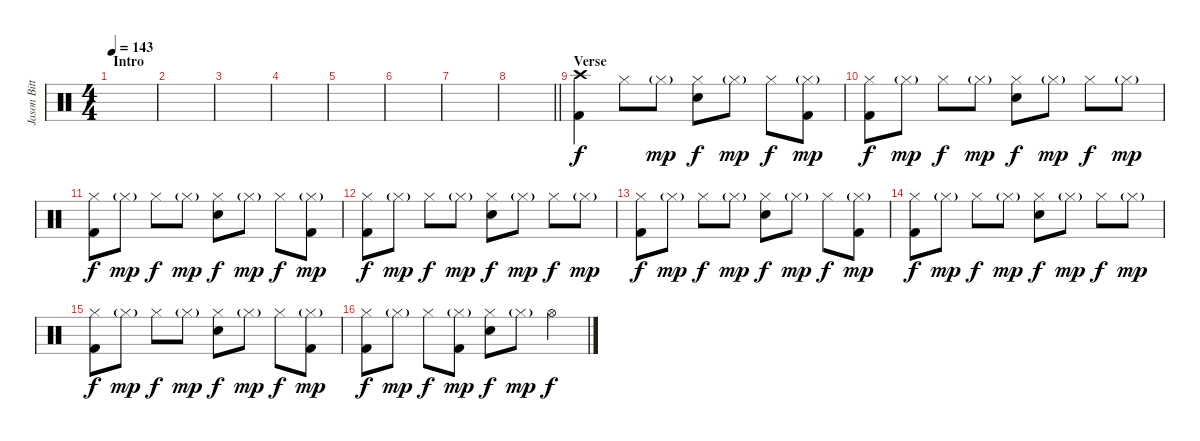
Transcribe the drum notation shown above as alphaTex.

\track ("Jason Bittner" "Jason Bitt") {instrument percussion}
\staff {score}
\articulation defaults
\ts (4 4)
\section ("" "Intro")
\tempo 143
\clef neutral
\ks c
|
|
|
|
|
|
|
\barLineRight lightlight
|
\section ("" "Verse")
("Crash high (hit)" "Kick (hit) 2").4 "Hi-Hat (closed)".8 "Hi-Hat (closed)"{g}.8{dy mp} ("Hi-Hat (closed)" "Electric Snare (hit)").8{dy f} "Hi-Hat (closed)"{g}.8{dy mp} "Hi-Hat (closed)".8{dy f} ("Hi-Hat (closed)"{g} "Kick (hit) 2").8{dy mp} |
("Hi-Hat (closed)" "Kick (hit) 2").8{dy f} "Hi-Hat (closed)"{g}.8{dy mp} "Hi-Hat (closed)".8{dy f} "Hi-Hat (closed)"{g}.8{dy mp} ("Hi-Hat (closed)" "Electric Snare (hit)").8{dy f} "Hi-Hat (closed)"{g}.8{dy mp} "Hi-Hat (closed)".8{dy f} "Hi-Hat (closed)"{g}.8{dy mp} |
("Hi-Hat (closed)" "Kick (hit) 2").8{dy f} "Hi-Hat (closed)"{g}.8{dy mp} "Hi-Hat (closed)".8{dy f} "Hi-Hat (closed)"{g}.8{dy mp} ("Hi-Hat (closed)" "Electric Snare (hit)").8{dy f} "Hi-Hat (closed)"{g}.8{dy mp} "Hi-Hat (closed)".8{dy f} ("Hi-Hat (closed)"{g} "Kick (hit) 2").8{dy mp} |
("Hi-Hat (closed)" "Kick (hit) 2").8{dy f} "Hi-Hat (closed)"{g}.8{dy mp} "Hi-Hat (closed)".8{dy f} "Hi-Hat (closed)"{g}.8{dy mp} ("Hi-Hat (closed)" "Electric Snare (hit)").8{dy f} "Hi-Hat (closed)"{g}.8{dy mp} "Hi-Hat (closed)".8{dy f} "Hi-Hat (closed)"{g}.8{dy mp} |
("Hi-Hat (closed)" "Kick (hit) 2").8{dy f} "Hi-Hat (closed)"{g}.8{dy mp} "Hi-Hat (closed)".8{dy f} "Hi-Hat (closed)"{g}.8{dy mp} ("Hi-Hat (closed)" "Electric Snare (hit)").8{dy f} "Hi-Hat (closed)"{g}.8{dy mp} "Hi-Hat (closed)".8{dy f} ("Hi-Hat (closed)"{g} "Kick (hit) 2").8{dy mp} |
("Hi-Hat (closed)" "Kick (hit) 2").8{dy f} "Hi-Hat (closed)"{g}.8{dy mp} "Hi-Hat (closed)".8{dy f} "Hi-Hat (closed)"{g}.8{dy mp} ("Hi-Hat (closed)" "Electric Snare (hit)").8{dy f} "Hi-Hat (closed)"{g}.8{dy mp} "Hi-Hat (closed)".8{dy f} "Hi-Hat (closed)"{g}.8{dy mp} |
("Hi-Hat (closed)" "Kick (hit) 2").8{dy f} "Hi-Hat (closed)"{g}.8{dy mp} "Hi-Hat (closed)".8{dy f} "Hi-Hat (closed)"{g}.8{dy mp} ("Hi-Hat (closed)" "Electric Snare (hit)").8{dy f} "Hi-Hat (closed)"{g}.8{dy mp} "Hi-Hat (closed)".8{dy f} ("Hi-Hat (closed)"{g} "Kick (hit) 2").8{dy mp} |
("Hi-Hat (closed)" "Kick (hit) 2").8{dy f} "Hi-Hat (closed)"{g}.8{dy mp} "Hi-Hat (closed)".8{dy f} ("Hi-Hat (closed)"{g} "Kick (hit) 2").8{dy mp} ("Hi-Hat (closed)" "Electric Snare (hit)").8{dy f} "Hi-Hat (closed)"{g}.8{dy mp} "Hi-Hat (open)".4{dy f}
